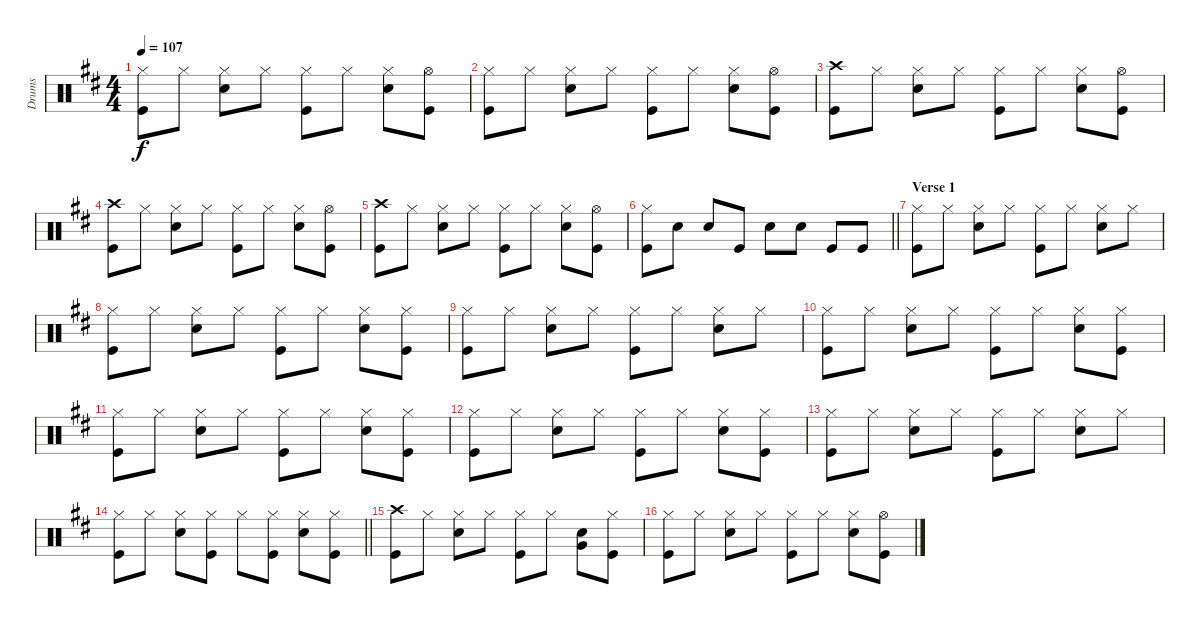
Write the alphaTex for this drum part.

\track ("Drums" "Drums") {instrument percussion}
\staff {score}
\articulation defaults
\ts (4 4)
\tempo 107
\clef neutral
\ks d
("Hi-Hat (closed)" "Kick (hit)").8{dy f} "Hi-Hat (closed)".8 ("Hi-Hat (closed)" "Snare (hit) 2").8 "Hi-Hat (closed)".8 ("Hi-Hat (closed)" "Kick (hit)").8 "Hi-Hat (closed)".8 ("Hi-Hat (closed)" "Snare (hit) 2").8 ("Hi-Hat (open)" "Kick (hit)").8 |
("Hi-Hat (closed)" "Kick (hit)").8 "Hi-Hat (closed)".8 ("Hi-Hat (closed)" "Snare (hit) 2").8 "Hi-Hat (closed)".8 ("Hi-Hat (closed)" "Kick (hit)").8 "Hi-Hat (closed)".8 ("Hi-Hat (closed)" "Snare (hit) 2").8 ("Hi-Hat (open)" "Kick (hit)").8 |
("Crash high (hit)" "Kick (hit)").8 "Hi-Hat (closed)".8 ("Hi-Hat (closed)" "Snare (hit) 2").8 "Hi-Hat (closed)".8 ("Hi-Hat (closed)" "Kick (hit)").8 "Hi-Hat (closed)".8 ("Hi-Hat (closed)" "Snare (hit) 2").8 ("Hi-Hat (open)" "Kick (hit)").8 |
("Crash high (hit)" "Kick (hit)").8 "Hi-Hat (closed)".8 ("Hi-Hat (closed)" "Snare (hit) 2").8 "Hi-Hat (closed)".8 ("Hi-Hat (closed)" "Kick (hit)").8 "Hi-Hat (closed)".8 ("Hi-Hat (closed)" "Snare (hit) 2").8 ("Hi-Hat (open)" "Kick (hit)").8 |
("Crash high (hit)" "Kick (hit)").8 "Hi-Hat (closed)".8 ("Hi-Hat (closed)" "Snare (hit) 2").8 "Hi-Hat (closed)".8 ("Hi-Hat (closed)" "Kick (hit)").8 "Hi-Hat (closed)".8 ("Hi-Hat (closed)" "Snare (hit) 2").8 ("Hi-Hat (open)" "Kick (hit)").8 |
\barLineRight lightlight
("Hi-Hat (closed)" "Kick (hit)").8 "Snare (hit) 2".8 "Snare (hit) 2".8 "Kick (hit)".8 "Snare (hit) 2".8 "Snare (hit) 2".8 "Kick (hit)".8 "Kick (hit)".8 |
\section ("" "Verse 1")
("Hi-Hat (closed)" "Kick (hit)").8 "Hi-Hat (closed)".8 ("Hi-Hat (closed)" "Snare (hit) 2").8 "Hi-Hat (closed)".8 ("Hi-Hat (closed)" "Kick (hit)").8 "Hi-Hat (closed)".8 ("Hi-Hat (closed)" "Snare (hit) 2").8 "Hi-Hat (closed)".8 |
("Hi-Hat (closed)" "Kick (hit)").8 "Hi-Hat (closed)".8 ("Hi-Hat (closed)" "Snare (hit) 2").8 "Hi-Hat (closed)".8 ("Hi-Hat (closed)" "Kick (hit)").8 "Hi-Hat (closed)".8 ("Hi-Hat (closed)" "Snare (hit) 2").8 ("Hi-Hat (closed)" "Kick (hit)").8 |
("Hi-Hat (closed)" "Kick (hit)").8 "Hi-Hat (closed)".8 ("Hi-Hat (closed)" "Snare (hit) 2").8 "Hi-Hat (closed)".8 ("Hi-Hat (closed)" "Kick (hit)").8 "Hi-Hat (closed)".8 ("Hi-Hat (closed)" "Snare (hit) 2").8 "Hi-Hat (closed)".8 |
("Hi-Hat (closed)" "Kick (hit)").8 "Hi-Hat (closed)".8 ("Hi-Hat (closed)" "Snare (hit) 2").8 "Hi-Hat (closed)".8 ("Hi-Hat (closed)" "Kick (hit)").8 "Hi-Hat (closed)".8 ("Hi-Hat (closed)" "Snare (hit) 2").8 ("Hi-Hat (closed)" "Kick (hit)").8 |
("Hi-Hat (closed)" "Kick (hit)").8 "Hi-Hat (closed)".8 ("Hi-Hat (closed)" "Snare (hit) 2").8 "Hi-Hat (closed)".8 ("Hi-Hat (closed)" "Kick (hit)").8 "Hi-Hat (closed)".8 ("Hi-Hat (closed)" "Snare (hit) 2").8 ("Hi-Hat (closed)" "Kick (hit)").8 |
("Hi-Hat (closed)" "Kick (hit)").8 "Hi-Hat (closed)".8 ("Hi-Hat (closed)" "Snare (hit) 2").8 "Hi-Hat (closed)".8 ("Hi-Hat (closed)" "Kick (hit)").8 "Hi-Hat (closed)".8 ("Hi-Hat (closed)" "Snare (hit) 2").8 ("Hi-Hat (closed)" "Kick (hit)").8 |
("Hi-Hat (closed)" "Kick (hit)").8 "Hi-Hat (closed)".8 ("Hi-Hat (closed)" "Snare (hit) 2").8 "Hi-Hat (closed)".8 ("Hi-Hat (closed)" "Kick (hit)").8 "Hi-Hat (closed)".8 ("Hi-Hat (closed)" "Snare (hit) 2").8 "Hi-Hat (closed)".8 |
\barLineRight lightlight
("Hi-Hat (closed)" "Kick (hit)").8 "Hi-Hat (closed)".8 ("Hi-Hat (closed)" "Snare (hit) 2").8 ("Hi-Hat (closed)" "Kick (hit)").8 "Hi-Hat (closed)".8 ("Hi-Hat (closed)" "Kick (hit)").8 ("Hi-Hat (closed)" "Snare (hit) 2").8 ("Hi-Hat (closed)" "Kick (hit)").8 |
("Crash high (hit)" "Kick (hit)").8 "Hi-Hat (closed)".8 ("Hi-Hat (closed)" "Snare (hit) 2").8 "Hi-Hat (closed)".8 ("Hi-Hat (closed)" "Kick (hit)").8 "Hi-Hat (closed)".8 ("Snare (hit) 2" "Very Low Tom (hit)").8 ("Hi-Hat (closed)" "Kick (hit)").8 |
("Hi-Hat (closed)" "Kick (hit)").8 "Hi-Hat (closed)".8 ("Hi-Hat (closed)" "Snare (hit) 2").8 "Hi-Hat (closed)".8 ("Hi-Hat (closed)" "Kick (hit)").8 "Hi-Hat (closed)".8 ("Hi-Hat (closed)" "Snare (hit) 2").8 ("Hi-Hat (open)" "Kick (hit)").8
